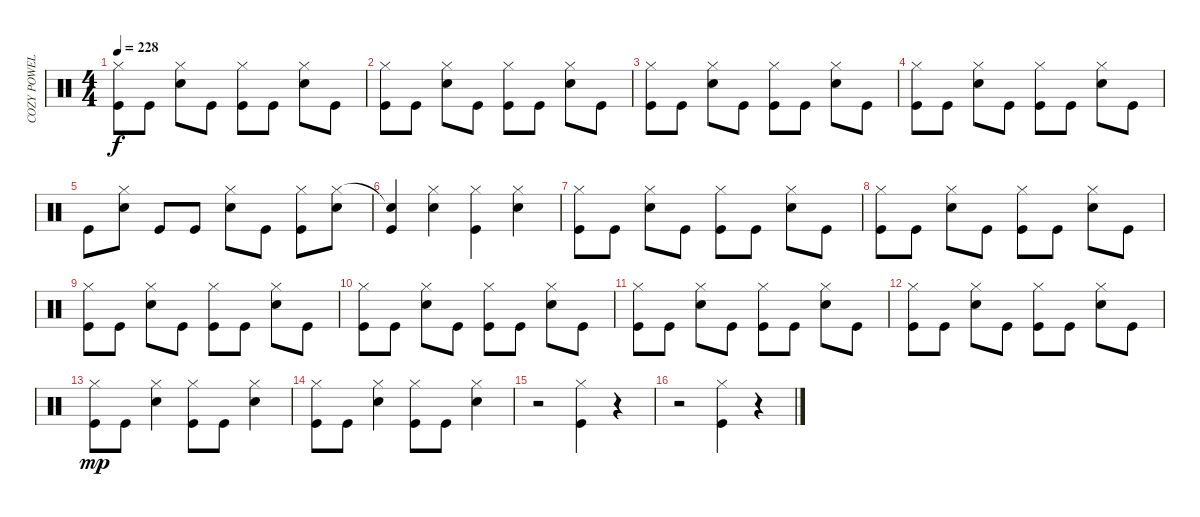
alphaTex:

\track ("COZY POWELL" "COZY POWEL") {instrument percussion}
\staff {score}
\articulation defaults
\ts (4 4)
\tempo 228
\clef neutral
\ks c
("Hi-Hat (closed)" "Kick (hit)").8{dy f} "Kick (hit)".8 ("Hi-Hat (closed)" "Snare (hit) 2").8 "Kick (hit)".8 ("Hi-Hat (closed)" "Kick (hit)").8 "Kick (hit)".8 ("Hi-Hat (closed)" "Snare (hit) 2").8 "Kick (hit)".8 |
("Hi-Hat (closed)" "Kick (hit)").8 "Kick (hit)".8 ("Hi-Hat (closed)" "Snare (hit) 2").8 "Kick (hit)".8 ("Hi-Hat (closed)" "Kick (hit)").8 "Kick (hit)".8 ("Hi-Hat (closed)" "Snare (hit) 2").8 "Kick (hit)".8 |
("Hi-Hat (closed)" "Kick (hit)").8 "Kick (hit)".8 ("Hi-Hat (closed)" "Snare (hit) 2").8 "Kick (hit)".8 ("Hi-Hat (closed)" "Kick (hit)").8 "Kick (hit)".8 ("Hi-Hat (closed)" "Snare (hit) 2").8 "Kick (hit)".8 |
("Hi-Hat (closed)" "Kick (hit)").8 "Kick (hit)".8 ("Hi-Hat (closed)" "Snare (hit) 2").8 "Kick (hit)".8 ("Hi-Hat (closed)" "Kick (hit)").8 "Kick (hit)".8 ("Hi-Hat (closed)" "Snare (hit) 2").8 "Kick (hit)".8 |
"Kick (hit)".8 ("Hi-Hat (closed)" "Snare (hit) 2").8 "Kick (hit)".8 "Kick (hit)".8 ("Hi-Hat (closed)" "Snare (hit) 2").8 "Kick (hit)".8 ("Hi-Hat (closed)" "Kick (hit)").8 ("Hi-Hat (closed)" "Snare (hit) 2").8 |
("Snare (hit)"{t} "Kick (hit)").4 ("Hi-Hat (closed)" "Snare (hit) 2").4 ("Hi-Hat (closed)" "Kick (hit)").4 ("Hi-Hat (closed)" "Snare (hit) 2").4 |
("Hi-Hat (closed)" "Kick (hit)").8 "Kick (hit)".8 ("Hi-Hat (closed)" "Snare (hit) 2").8 "Kick (hit)".8 ("Hi-Hat (closed)" "Kick (hit)").8 "Kick (hit)".8 ("Hi-Hat (closed)" "Snare (hit) 2").8 "Kick (hit)".8 |
("Hi-Hat (closed)" "Kick (hit)").8 "Kick (hit)".8 ("Hi-Hat (closed)" "Snare (hit) 2").8 "Kick (hit)".8 ("Hi-Hat (closed)" "Kick (hit)").8 "Kick (hit)".8 ("Hi-Hat (closed)" "Snare (hit) 2").8 "Kick (hit)".8 |
("Hi-Hat (closed)" "Kick (hit)").8 "Kick (hit)".8 ("Hi-Hat (closed)" "Snare (hit) 2").8 "Kick (hit)".8 ("Hi-Hat (closed)" "Kick (hit)").8 "Kick (hit)".8 ("Hi-Hat (closed)" "Snare (hit) 2").8 "Kick (hit)".8 |
("Hi-Hat (closed)" "Kick (hit)").8 "Kick (hit)".8 ("Hi-Hat (closed)" "Snare (hit) 2").8 "Kick (hit)".8 ("Hi-Hat (closed)" "Kick (hit)").8 "Kick (hit)".8 ("Hi-Hat (closed)" "Snare (hit) 2").8 "Kick (hit)".8 |
("Hi-Hat (closed)" "Kick (hit)").8 "Kick (hit)".8 ("Hi-Hat (closed)" "Snare (hit) 2").8 "Kick (hit)".8 ("Hi-Hat (closed)" "Kick (hit)").8 "Kick (hit)".8 ("Hi-Hat (closed)" "Snare (hit) 2").8 "Kick (hit)".8 |
("Hi-Hat (closed)" "Kick (hit)").8 "Kick (hit)".8 ("Hi-Hat (closed)" "Snare (hit) 2").8 "Kick (hit)".8 ("Hi-Hat (closed)" "Kick (hit)").8 "Kick (hit)".8 ("Hi-Hat (closed)" "Snare (hit) 2").8 "Kick (hit)".8 |
("Hi-Hat (closed)" "Kick (hit)").8{dy mp} "Kick (hit)".8 ("Hi-Hat (closed)" "Snare (hit) 2").4 ("Hi-Hat (closed)" "Kick (hit)").8 "Kick (hit)".8 ("Hi-Hat (closed)" "Snare (hit) 2").4 |
("Hi-Hat (closed)" "Kick (hit)").8 "Kick (hit)".8 ("Hi-Hat (closed)" "Snare (hit) 2").4 ("Hi-Hat (closed)" "Kick (hit)").8 "Kick (hit)".8 ("Hi-Hat (closed)" "Snare (hit) 2").4 |
r.2 ("Hi-Hat (closed)" "Kick (hit)").4 r.4 |
r.2 ("Hi-Hat (closed)" "Kick (hit)").4 r.4
